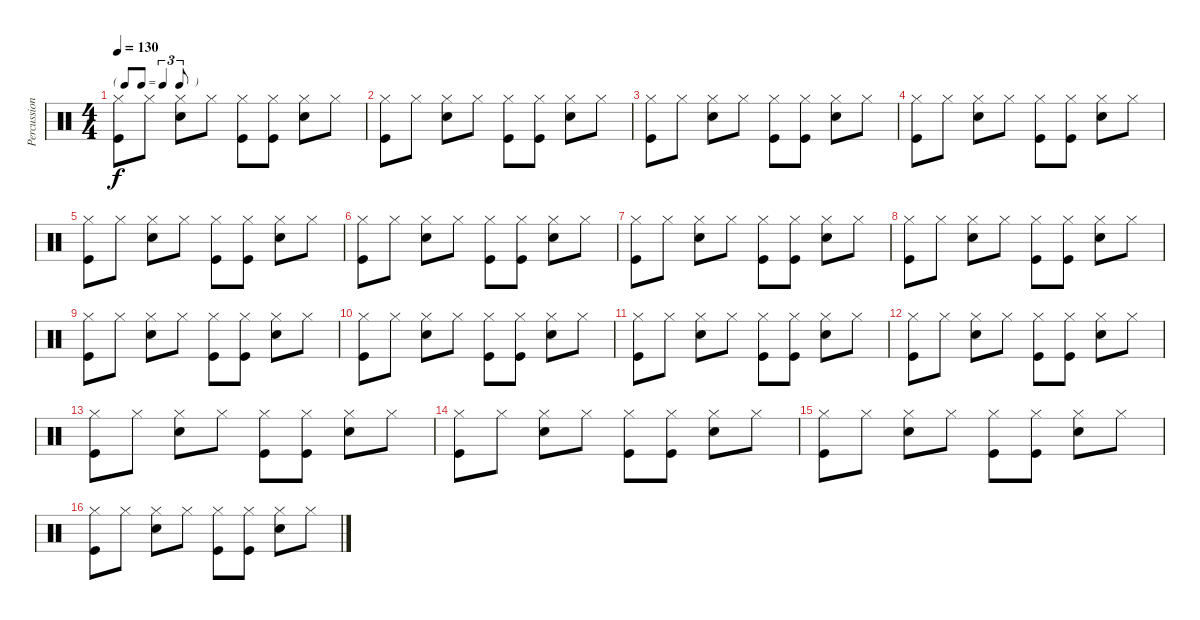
\track ("Percussion" "Percussion") {instrument percussion}
\staff {score}
\articulation defaults
\ts (4 4)
\tf triplet8th
\tempo 130
\clef neutral
\ks c
("Hi-Hat (closed)" "Kick (hit)").8{dy f} "Hi-Hat (closed)".8 ("Hi-Hat (closed)" "Snare (hit) 2").8 "Hi-Hat (closed)".8 ("Hi-Hat (closed)" "Kick (hit)").8 ("Hi-Hat (closed)" "Kick (hit)").8 ("Hi-Hat (closed)" "Snare (hit) 2").8 "Hi-Hat (closed)".8 |
("Hi-Hat (closed)" "Kick (hit)").8 "Hi-Hat (closed)".8 ("Hi-Hat (closed)" "Snare (hit) 2").8 "Hi-Hat (closed)".8 ("Hi-Hat (closed)" "Kick (hit)").8 ("Hi-Hat (closed)" "Kick (hit)").8 ("Hi-Hat (closed)" "Snare (hit) 2").8 "Hi-Hat (closed)".8 |
("Hi-Hat (closed)" "Kick (hit)").8 "Hi-Hat (closed)".8 ("Hi-Hat (closed)" "Snare (hit) 2").8 "Hi-Hat (closed)".8 ("Hi-Hat (closed)" "Kick (hit)").8 ("Hi-Hat (closed)" "Kick (hit)").8 ("Hi-Hat (closed)" "Snare (hit) 2").8 "Hi-Hat (closed)".8 |
("Hi-Hat (closed)" "Kick (hit)").8 "Hi-Hat (closed)".8 ("Hi-Hat (closed)" "Snare (hit) 2").8 "Hi-Hat (closed)".8 ("Hi-Hat (closed)" "Kick (hit)").8 ("Hi-Hat (closed)" "Kick (hit)").8 ("Hi-Hat (closed)" "Snare (hit) 2").8 "Hi-Hat (closed)".8 |
("Hi-Hat (closed)" "Kick (hit)").8 "Hi-Hat (closed)".8 ("Hi-Hat (closed)" "Snare (hit) 2").8 "Hi-Hat (closed)".8 ("Hi-Hat (closed)" "Kick (hit)").8 ("Hi-Hat (closed)" "Kick (hit)").8 ("Hi-Hat (closed)" "Snare (hit) 2").8 "Hi-Hat (closed)".8 |
("Hi-Hat (closed)" "Kick (hit)").8 "Hi-Hat (closed)".8 ("Hi-Hat (closed)" "Snare (hit) 2").8 "Hi-Hat (closed)".8 ("Hi-Hat (closed)" "Kick (hit)").8 ("Hi-Hat (closed)" "Kick (hit)").8 ("Hi-Hat (closed)" "Snare (hit) 2").8 "Hi-Hat (closed)".8 |
("Hi-Hat (closed)" "Kick (hit)").8 "Hi-Hat (closed)".8 ("Hi-Hat (closed)" "Snare (hit) 2").8 "Hi-Hat (closed)".8 ("Hi-Hat (closed)" "Kick (hit)").8 ("Hi-Hat (closed)" "Kick (hit)").8 ("Hi-Hat (closed)" "Snare (hit) 2").8 "Hi-Hat (closed)".8 |
("Hi-Hat (closed)" "Kick (hit)").8 "Hi-Hat (closed)".8 ("Hi-Hat (closed)" "Snare (hit) 2").8 "Hi-Hat (closed)".8 ("Hi-Hat (closed)" "Kick (hit)").8 ("Hi-Hat (closed)" "Kick (hit)").8 ("Hi-Hat (closed)" "Snare (hit) 2").8 "Hi-Hat (closed)".8 |
("Hi-Hat (closed)" "Kick (hit)").8 "Hi-Hat (closed)".8 ("Hi-Hat (closed)" "Snare (hit) 2").8 "Hi-Hat (closed)".8 ("Hi-Hat (closed)" "Kick (hit)").8 ("Hi-Hat (closed)" "Kick (hit)").8 ("Hi-Hat (closed)" "Snare (hit) 2").8 "Hi-Hat (closed)".8 |
("Hi-Hat (closed)" "Kick (hit)").8 "Hi-Hat (closed)".8 ("Hi-Hat (closed)" "Snare (hit) 2").8 "Hi-Hat (closed)".8 ("Hi-Hat (closed)" "Kick (hit)").8 ("Hi-Hat (closed)" "Kick (hit)").8 ("Hi-Hat (closed)" "Snare (hit) 2").8 "Hi-Hat (closed)".8 |
("Hi-Hat (closed)" "Kick (hit)").8 "Hi-Hat (closed)".8 ("Hi-Hat (closed)" "Snare (hit) 2").8 "Hi-Hat (closed)".8 ("Hi-Hat (closed)" "Kick (hit)").8 ("Hi-Hat (closed)" "Kick (hit)").8 ("Hi-Hat (closed)" "Snare (hit) 2").8 "Hi-Hat (closed)".8 |
("Hi-Hat (closed)" "Kick (hit)").8 "Hi-Hat (closed)".8 ("Hi-Hat (closed)" "Snare (hit) 2").8 "Hi-Hat (closed)".8 ("Hi-Hat (closed)" "Kick (hit)").8 ("Hi-Hat (closed)" "Kick (hit)").8 ("Hi-Hat (closed)" "Snare (hit) 2").8 "Hi-Hat (closed)".8 |
("Hi-Hat (closed)" "Kick (hit)").8 "Hi-Hat (closed)".8 ("Hi-Hat (closed)" "Snare (hit) 2").8 "Hi-Hat (closed)".8 ("Hi-Hat (closed)" "Kick (hit)").8 ("Hi-Hat (closed)" "Kick (hit)").8 ("Hi-Hat (closed)" "Snare (hit) 2").8 "Hi-Hat (closed)".8 |
("Hi-Hat (closed)" "Kick (hit)").8 "Hi-Hat (closed)".8 ("Hi-Hat (closed)" "Snare (hit) 2").8 "Hi-Hat (closed)".8 ("Hi-Hat (closed)" "Kick (hit)").8 ("Hi-Hat (closed)" "Kick (hit)").8 ("Hi-Hat (closed)" "Snare (hit) 2").8 "Hi-Hat (closed)".8 |
("Hi-Hat (closed)" "Kick (hit)").8 "Hi-Hat (closed)".8 ("Hi-Hat (closed)" "Snare (hit) 2").8 "Hi-Hat (closed)".8 ("Hi-Hat (closed)" "Kick (hit)").8 ("Hi-Hat (closed)" "Kick (hit)").8 ("Hi-Hat (closed)" "Snare (hit) 2").8 "Hi-Hat (closed)".8 |
("Hi-Hat (closed)" "Kick (hit)").8 "Hi-Hat (closed)".8 ("Hi-Hat (closed)" "Snare (hit) 2").8 "Hi-Hat (closed)".8 ("Hi-Hat (closed)" "Kick (hit)").8 ("Hi-Hat (closed)" "Kick (hit)").8 ("Hi-Hat (closed)" "Snare (hit) 2").8 "Hi-Hat (closed)".8
